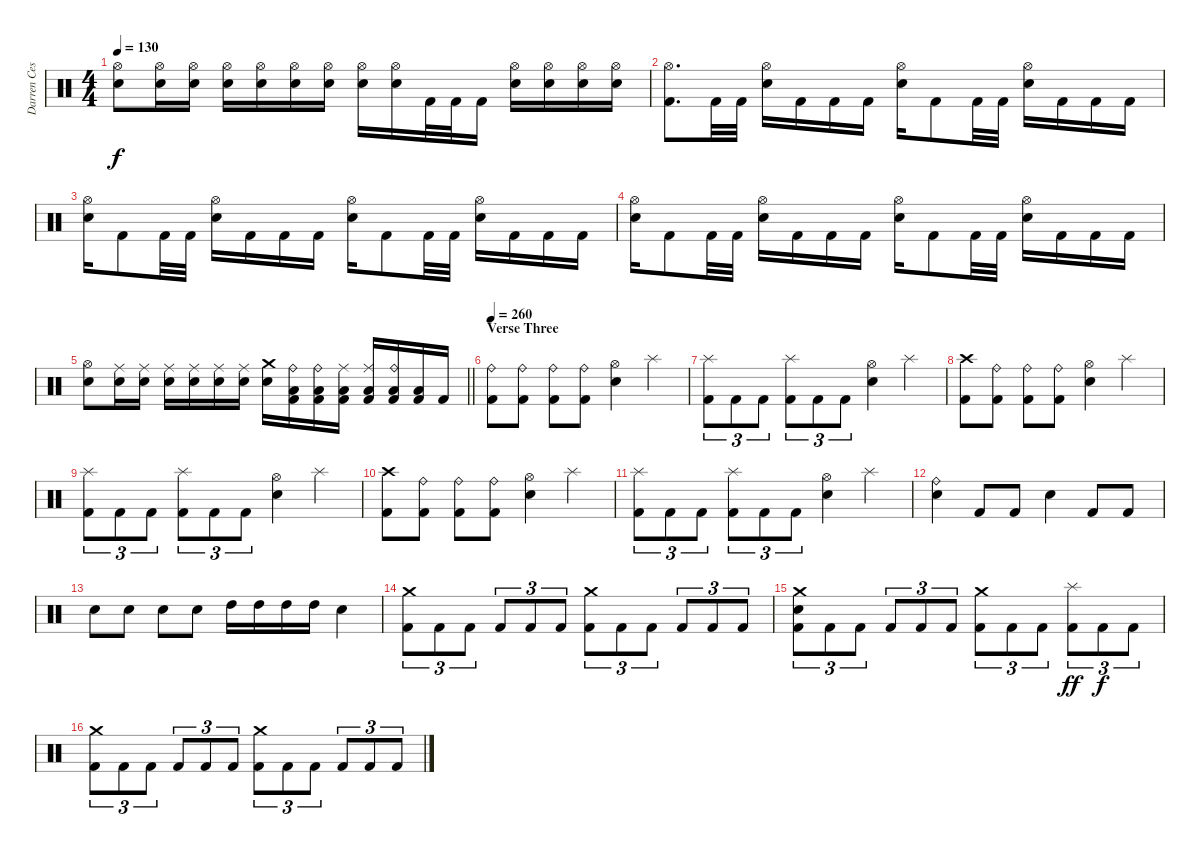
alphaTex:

\track ("Darren Cesca" "Darren Ces") {instrument percussion}
\staff {score}
\articulation defaults
\ts (4 4)
\tempo 130
\clef neutral
\ks c
("Hi-Hat (open)" "Electric Snare (hit)").8{dy f} ("Hi-Hat (open)" "Electric Snare (hit)").16 ("Hi-Hat (open)" "Electric Snare (hit)").16 ("Hi-Hat (open)" "Electric Snare (hit)").16 ("Hi-Hat (open)" "Electric Snare (hit)").16 ("Hi-Hat (open)" "Electric Snare (hit)").16 ("Hi-Hat (open)" "Electric Snare (hit)").16 ("Hi-Hat (open)" "Electric Snare (hit)").16 ("Hi-Hat (open)" "Electric Snare (hit)").16 "Kick (hit) 2".32 "Kick (hit) 2".32 "Kick (hit) 2".16 ("Hi-Hat (open)" "Electric Snare (hit)").16 ("Hi-Hat (open)" "Electric Snare (hit)").16 ("Hi-Hat (open)" "Electric Snare (hit)").16 ("Hi-Hat (open)" "Electric Snare (hit)").16 |
("Hi-Hat (open)" "Kick (hit) 2").8{d} "Kick (hit) 2".32 "Kick (hit) 2".32 ("Hi-Hat (open)" "Electric Snare (hit)").16 "Kick (hit) 2".16 "Kick (hit) 2".16 "Kick (hit) 2".16 ("Hi-Hat (open)" "Electric Snare (hit)").16 "Kick (hit) 2".8 "Kick (hit) 2".32 "Kick (hit) 2".32 ("Hi-Hat (open)" "Electric Snare (hit)").16 "Kick (hit) 2".16 "Kick (hit) 2".16 "Kick (hit) 2".16 |
("Hi-Hat (open)" "Electric Snare (hit)").16 "Kick (hit) 2".8 "Kick (hit) 2".32 "Kick (hit) 2".32 ("Hi-Hat (open)" "Electric Snare (hit)").16 "Kick (hit) 2".16 "Kick (hit) 2".16 "Kick (hit) 2".16 ("Hi-Hat (open)" "Electric Snare (hit)").16 "Kick (hit) 2".8 "Kick (hit) 2".32 "Kick (hit) 2".32 ("Hi-Hat (open)" "Electric Snare (hit)").16 "Kick (hit) 2".16 "Kick (hit) 2".16 "Kick (hit) 2".16 |
("Hi-Hat (open)" "Electric Snare (hit)").16 "Kick (hit) 2".8 "Kick (hit) 2".32 "Kick (hit) 2".32 ("Hi-Hat (open)" "Electric Snare (hit)").16 "Kick (hit) 2".16 "Kick (hit) 2".16 "Kick (hit) 2".16 ("Hi-Hat (open)" "Electric Snare (hit)").16 "Kick (hit) 2".8 "Kick (hit) 2".32 "Kick (hit) 2".32 ("Hi-Hat (open)" "Electric Snare (hit)").16 "Kick (hit) 2".16 "Kick (hit) 2".16 "Kick (hit) 2".16 |
\barLineRight lightlight
("Hi-Hat (open)" "Electric Snare (hit)").8 ("Ride (middle)" "Electric Snare (hit)").16 ("Ride (middle)" "Electric Snare (hit)").16 ("Ride (middle)" "Electric Snare (hit)").16 ("Ride (middle)" "Electric Snare (hit)").16 ("Ride (middle)" "Electric Snare (hit)").16 ("Ride (middle)" "Electric Snare (hit)").16 ("Crash medium (hit)" "Electric Snare (hit)").16 ("Ride (bell)" "Low Tom (hit)" "Kick (hit) 2").16 ("Ride (bell)" "Low Tom (hit)" "Kick (hit) 2").16 ("Ride (middle)" "Low Tom (hit)" "Kick (hit) 2").16 ("Ride (middle)" "Low Tom (hit)" "Kick (hit) 2").16 ("Ride (bell)" "Low Tom (hit)" "Kick (hit) 2").16 ("Low Tom (hit)" "Kick (hit) 2").16 "Kick (hit) 2".16 |
\section ("" "Verse Three")
\tempo 260
("Ride (bell)" "Kick (hit) 2").8 ("Ride (bell)" "Kick (hit) 2").8 ("Ride (bell)" "Kick (hit) 2").8 ("Ride (bell)" "Kick (hit) 2").8 ("Hi-Hat (open)" "Electric Snare (hit)").4 "Splash (hit)".4 |
("Splash (hit)" "Kick (hit) 2").8{tu (3 2)} "Kick (hit) 2".8{tu (3 2)} "Kick (hit) 2".8{tu (3 2)} ("Splash (hit)" "Kick (hit) 2").8{tu (3 2)} "Kick (hit) 2".8{tu (3 2)} "Kick (hit) 2".8{tu (3 2)} ("Hi-Hat (open)" "Electric Snare (hit)").4 "Splash (hit)".4 |
("Crash high (hit)" "Kick (hit) 2").8 ("Ride (bell)" "Kick (hit) 2").8 ("Ride (bell)" "Kick (hit) 2").8 ("Ride (bell)" "Kick (hit) 2").8 ("Hi-Hat (open)" "Electric Snare (hit)").4 "Splash (hit)".4 |
("Splash (hit)" "Kick (hit) 2").8{tu (3 2)} "Kick (hit) 2".8{tu (3 2)} "Kick (hit) 2".8{tu (3 2)} ("Splash (hit)" "Kick (hit) 2").8{tu (3 2)} "Kick (hit) 2".8{tu (3 2)} "Kick (hit) 2".8{tu (3 2)} ("Hi-Hat (open)" "Electric Snare (hit)").4 "Splash (hit)".4 |
("Crash high (hit)" "Kick (hit) 2").8 ("Ride (bell)" "Kick (hit) 2").8 ("Ride (bell)" "Kick (hit) 2").8 ("Ride (bell)" "Kick (hit) 2").8 ("Hi-Hat (open)" "Electric Snare (hit)").4 "Splash (hit)".4 |
("Splash (hit)" "Kick (hit) 2").8{tu (3 2)} "Kick (hit) 2".8{tu (3 2)} "Kick (hit) 2".8{tu (3 2)} ("Splash (hit)" "Kick (hit) 2").8{tu (3 2)} "Kick (hit) 2".8{tu (3 2)} "Kick (hit) 2".8{tu (3 2)} ("Hi-Hat (open)" "Electric Snare (hit)").4 "Splash (hit)".4 |
("Ride (bell)" "Electric Snare (hit)").4 "Kick (hit) 2".8 "Kick (hit) 2".8 "Electric Snare (hit)".4 "Kick (hit) 2".8 "Kick (hit) 2".8 |
"Electric Snare (hit)".8 "Electric Snare (hit)".8 "Electric Snare (hit)".8 "Electric Snare (hit)".8 "High Tom (hit)".16 "High Tom (hit)".16 "High Tom (hit)".16 "High Tom (hit)".16 "Electric Snare (hit)".4 |
("Crash medium (hit)" "Kick (hit) 2").8{tu (3 2)} "Kick (hit) 2".8{tu (3 2)} "Kick (hit) 2".8{tu (3 2)} "Kick (hit) 2".8{tu (3 2)} "Kick (hit) 2".8{tu (3 2)} "Kick (hit) 2".8{tu (3 2)} ("Crash medium (hit)" "Kick (hit) 2").8{tu (3 2)} "Kick (hit) 2".8{tu (3 2)} "Kick (hit) 2".8{tu (3 2)} "Kick (hit) 2".8{tu (3 2)} "Kick (hit) 2".8{tu (3 2)} "Kick (hit) 2".8{tu (3 2)} |
("Crash medium (hit)" "Electric Snare (hit)" "Kick (hit) 2").8{tu (3 2)} "Kick (hit) 2".8{tu (3 2)} "Kick (hit) 2".8{tu (3 2)} "Kick (hit) 2".8{tu (3 2)} "Kick (hit) 2".8{tu (3 2)} "Kick (hit) 2".8{tu (3 2)} ("Crash medium (hit)" "Kick (hit) 2").8{tu (3 2)} "Kick (hit) 2".8{tu (3 2)} "Kick (hit) 2".8{tu (3 2)} ("Splash (hit)" "Kick (hit) 2").8{tu (3 2) dy ff} "Kick (hit) 2".8{tu (3 2) dy f} "Kick (hit) 2".8{tu (3 2)} |
("Crash medium (hit)" "Kick (hit) 2").8{tu (3 2)} "Kick (hit) 2".8{tu (3 2)} "Kick (hit) 2".8{tu (3 2)} "Kick (hit) 2".8{tu (3 2)} "Kick (hit) 2".8{tu (3 2)} "Kick (hit) 2".8{tu (3 2)} ("Crash medium (hit)" "Kick (hit) 2").8{tu (3 2)} "Kick (hit) 2".8{tu (3 2)} "Kick (hit) 2".8{tu (3 2)} "Kick (hit) 2".8{tu (3 2)} "Kick (hit) 2".8{tu (3 2)} "Kick (hit) 2".8{tu (3 2)}
